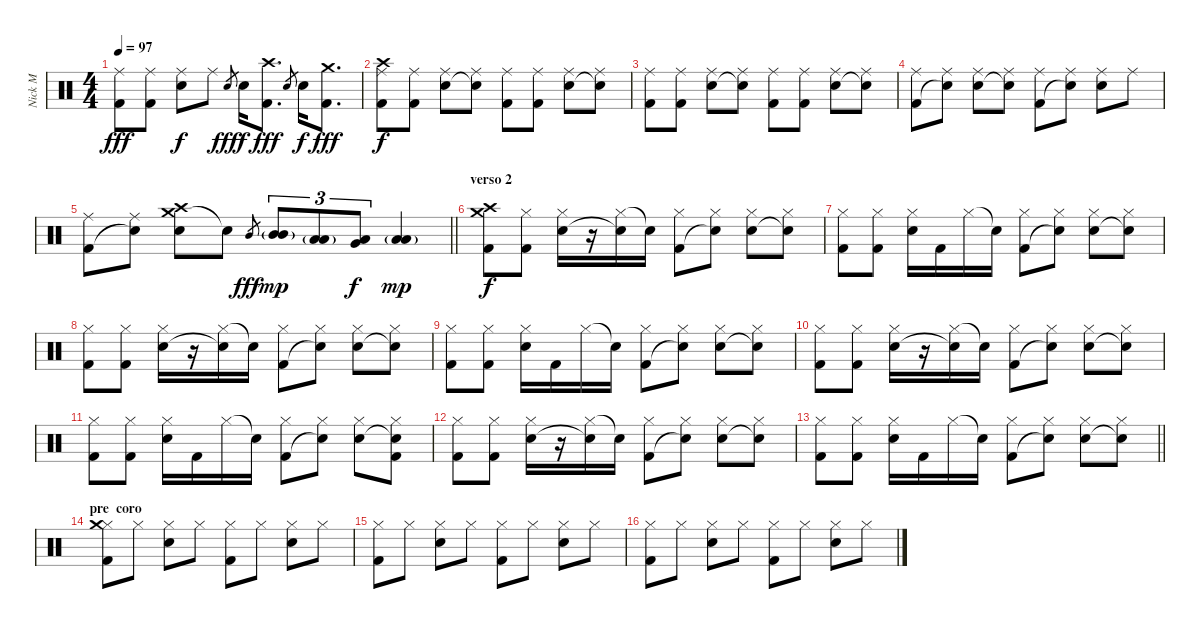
\track ("Nick M" "Nick M") {instrument percussion}
\staff {score}
\articulation defaults
\ts (4 4)
\tempo 97
\clef neutral
\ks c
("Ride (middle)" "Kick (hit) 2").8{dy fff} ("Ride (middle)" "Kick (hit) 2").8 ("Ride (middle)" "Snare (hit) 2").8{dy f} "Ride (middle)".8 "Snare (hit) 2".8{gr dy fff} "Snare (hit) 2".16{dy f} ("Crash high (hit)" "Kick (hit) 2").8{d dy fff} "Snare (hit) 2".8{gr} "Snare (hit) 2".16{dy f} ("Crash medium (hit)" "Kick (hit) 2").8{d dy fff} |
("Ride (middle)" "Crash high (hit)" "Kick (hit) 2").8{dy f} ("Ride (middle)" "Kick (hit) 2").8 ("Ride (middle)" "Snare (hit) 2").8 ("Ride (middle)" "Snare (hit)"{t}).8 ("Ride (middle)" "Kick (hit) 2").8 ("Ride (middle)" "Kick (hit) 2").8 ("Ride (middle)" "Snare (hit) 2").8 ("Ride (middle)" "Snare (hit)"{t}).8 |
("Ride (middle)" "Kick (hit) 2").8 ("Ride (middle)" "Kick (hit) 2").8 ("Ride (middle)" "Snare (hit) 2").8 ("Ride (middle)" "Snare (hit)"{t}).8 ("Ride (middle)" "Kick (hit) 2").8 ("Ride (middle)" "Kick (hit) 2").8 ("Ride (middle)" "Snare (hit) 2").8 ("Ride (middle)" "Snare (hit)"{t}).8 |
("Ride (middle)" "Kick (hit) 2").8 ("Ride (middle)" "Snare (hit)"{t}).8 ("Ride (middle)" "Snare (hit) 2").8 ("Ride (middle)" "Snare (hit)"{t}).8 ("Ride (middle)" "Kick (hit) 2").8 ("Ride (middle)" "Snare (hit)"{t}).8 ("Ride (middle)" "Snare (hit) 2").8 "Ride (middle)".8 |
\barLineRight lightlight
("Ride (middle)" "Kick (hit) 2").8 ("Ride (middle)" "Snare (hit)"{t}).8 ("Crash medium (hit)" "Crash high (hit)" "Snare (hit) 2").8 "Snare (hit)"{t}.8 "Mid Tom (hit)".8{gr dy fff} ("Mid Tom (hit)" "Mid Tom (hit)"{g}).8{tu (3 2) dy mp} ("Low Tom (hit)" "Low Tom (hit)"{g}).8{tu (3 2)} ("Very Low Tom (hit)" "Low Tom (hit)").8{tu (3 2) dy f} ("Low Floor Tom (hit)" "Low Floor Tom (hit)"{g}).4{dy mp} |
\section ("" "verso 2")
("Crash medium (hit)" "Crash high (hit)" "Kick (hit) 2").8{dy f} ("Hi-Hat (closed)" "Kick (hit) 2").8 ("Hi-Hat (closed)" "Snare (hit) 2").16 r.16 ("Hi-Hat (closed)" "Snare (hit)"{t}).16 "Snare (hit)"{t}.16 ("Hi-Hat (closed)" "Kick (hit) 2").8 ("Hi-Hat (closed)" "Snare (hit)"{t}).8 ("Hi-Hat (closed)" "Snare (hit) 2").8 ("Hi-Hat (closed)" "Snare (hit)"{t}).8 |
("Hi-Hat (closed)" "Kick (hit) 2").8 ("Hi-Hat (closed)" "Kick (hit) 2").8 ("Hi-Hat (closed)" "Snare (hit) 2").16 "Kick (hit) 2".16 "Hi-Hat (closed)".16 "Snare (hit)"{t}.16 ("Hi-Hat (closed)" "Kick (hit) 2").8 ("Hi-Hat (closed)" "Snare (hit)"{t}).8 ("Hi-Hat (closed)" "Snare (hit) 2").8 ("Hi-Hat (closed)" "Snare (hit)"{t}).8 |
("Hi-Hat (closed)" "Kick (hit) 2").8 ("Hi-Hat (closed)" "Kick (hit) 2").8 ("Hi-Hat (closed)" "Snare (hit) 2").16 r.16 ("Hi-Hat (closed)" "Snare (hit)"{t}).16 "Snare (hit)"{t}.16 ("Hi-Hat (closed)" "Kick (hit) 2").8 ("Hi-Hat (closed)" "Snare (hit)"{t}).8 ("Hi-Hat (closed)" "Snare (hit) 2").8 ("Hi-Hat (closed)" "Snare (hit)"{t}).8 |
("Hi-Hat (closed)" "Kick (hit) 2").8 ("Hi-Hat (closed)" "Kick (hit) 2").8 ("Hi-Hat (closed)" "Snare (hit) 2").16 "Kick (hit) 2".16 "Hi-Hat (closed)".16 "Snare (hit)"{t}.16 ("Hi-Hat (closed)" "Kick (hit) 2").8 ("Hi-Hat (closed)" "Snare (hit)"{t}).8 ("Hi-Hat (closed)" "Snare (hit) 2").8 ("Hi-Hat (closed)" "Snare (hit)"{t}).8 |
("Hi-Hat (closed)" "Kick (hit) 2").8 ("Hi-Hat (closed)" "Kick (hit) 2").8 ("Hi-Hat (closed)" "Snare (hit) 2").16 r.16 ("Hi-Hat (closed)" "Snare (hit)"{t}).16 "Snare (hit)"{t}.16 ("Hi-Hat (closed)" "Kick (hit) 2").8 ("Hi-Hat (closed)" "Snare (hit)"{t}).8 ("Hi-Hat (closed)" "Snare (hit) 2").8 ("Hi-Hat (closed)" "Snare (hit)"{t}).8 |
("Hi-Hat (closed)" "Kick (hit) 2").8 ("Hi-Hat (closed)" "Kick (hit) 2").8 ("Hi-Hat (closed)" "Snare (hit) 2").16 "Kick (hit) 2".16 "Hi-Hat (closed)".16 "Snare (hit)"{t}.16 ("Hi-Hat (closed)" "Kick (hit) 2").8 ("Hi-Hat (closed)" "Snare (hit)"{t}).8 ("Hi-Hat (closed)" "Snare (hit) 2").8 ("Hi-Hat (closed)" "Snare (hit)"{t} "Kick (hit) 2").8 |
("Hi-Hat (closed)" "Kick (hit) 2").8 ("Hi-Hat (closed)" "Kick (hit) 2").8 ("Hi-Hat (closed)" "Snare (hit) 2").16 r.16 ("Hi-Hat (closed)" "Snare (hit)"{t}).16 "Snare (hit)"{t}.16 ("Hi-Hat (closed)" "Kick (hit) 2").8 ("Hi-Hat (closed)" "Snare (hit)"{t}).8 ("Hi-Hat (closed)" "Snare (hit) 2").8 ("Hi-Hat (closed)" "Snare (hit)"{t}).8 |
\barLineRight lightlight
("Hi-Hat (closed)" "Kick (hit) 2").8 ("Hi-Hat (closed)" "Kick (hit) 2").8 ("Hi-Hat (closed)" "Snare (hit) 2").16 "Kick (hit) 2".16 "Hi-Hat (closed)".16 "Snare (hit)"{t}.16 ("Hi-Hat (closed)" "Kick (hit) 2").8 ("Hi-Hat (closed)" "Snare (hit)"{t}).8 ("Hi-Hat (closed)" "Snare (hit) 2").8 ("Hi-Hat (closed)" "Snare (hit)"{t}).8 |
\section ("" "pre  coro")
("Hi-Hat (closed)" "Crash medium (hit)" "Kick (hit) 2").8 "Hi-Hat (closed)".8 ("Hi-Hat (closed)" "Snare (hit) 2").8 "Hi-Hat (closed)".8 ("Hi-Hat (closed)" "Kick (hit) 2").8 "Hi-Hat (closed)".8 ("Hi-Hat (closed)" "Snare (hit) 2").8 "Hi-Hat (closed)".8 |
("Hi-Hat (closed)" "Kick (hit) 2").8 "Hi-Hat (closed)".8 ("Hi-Hat (closed)" "Snare (hit) 2").8 "Hi-Hat (closed)".8 ("Hi-Hat (closed)" "Kick (hit) 2").8 "Hi-Hat (closed)".8 ("Hi-Hat (closed)" "Snare (hit) 2").8 "Hi-Hat (closed)".8 |
("Hi-Hat (closed)" "Kick (hit) 2").8 "Hi-Hat (closed)".8 ("Hi-Hat (closed)" "Snare (hit) 2").8 "Hi-Hat (closed)".8 ("Hi-Hat (closed)" "Kick (hit) 2").8 "Hi-Hat (closed)".8 ("Hi-Hat (closed)" "Snare (hit) 2").8 "Hi-Hat (closed)".8
